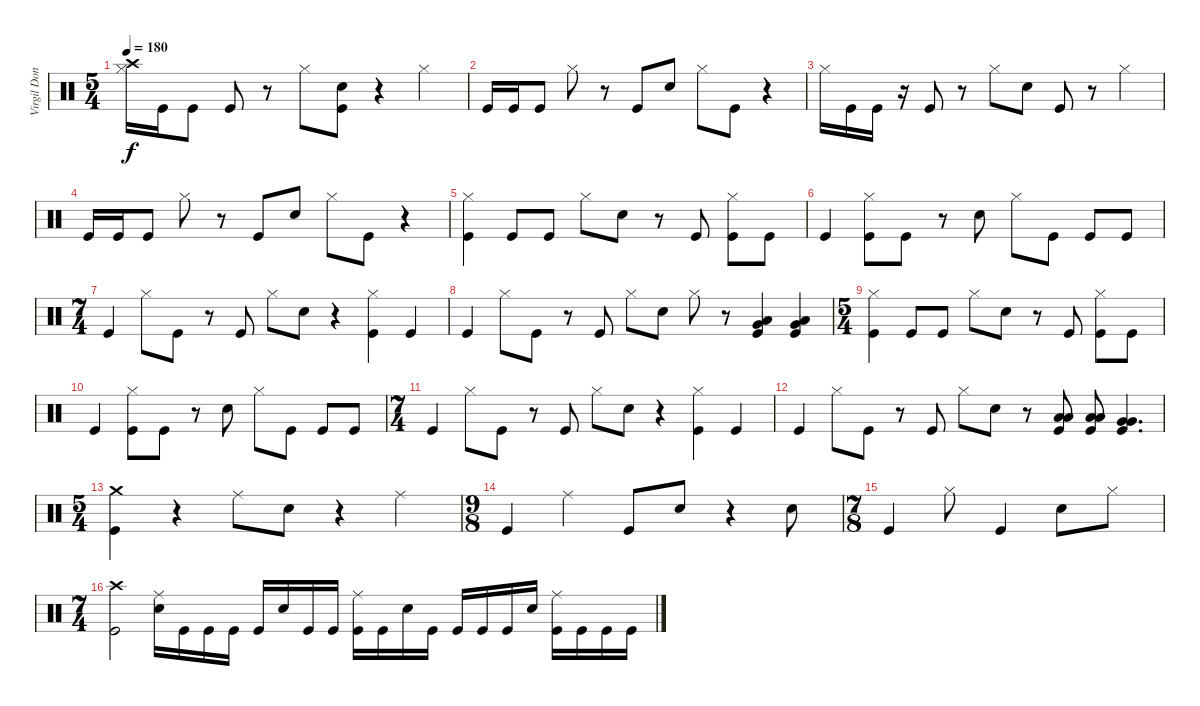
\track ("Virgil Donati" "Virgil Don") {instrument percussion}
\staff {score}
\articulation defaults
\ts (5 4)
\tempo 180
\clef neutral
\ks c
("Hi-Hat (closed)" "Crash high (hit)").16{dy f} "Kick (hit)".16 "Kick (hit)".8 "Kick (hit)".8 r.8 "Hi-Hat (closed)".8 ("Snare (hit) 2" "Kick (hit)").8 r.4 "Hi-Hat (closed)".4 |
"Kick (hit)".16 "Kick (hit)".16 "Kick (hit)".8 "Hi-Hat (closed)".8 r.8 "Kick (hit)".8 "Snare (hit) 2".8 "Hi-Hat (closed)".8 "Kick (hit)".8 r.4 |
"Hi-Hat (closed)".16 "Kick (hit)".16 "Kick (hit)".16 r.16 "Kick (hit)".8 r.8 "Hi-Hat (closed)".8 "Snare (hit) 2".8 "Kick (hit)".8 r.8 "Hi-Hat (closed)".4 |
"Kick (hit)".16 "Kick (hit)".16 "Kick (hit)".8 "Hi-Hat (closed)".8 r.8 "Kick (hit)".8 "Snare (hit) 2".8 "Hi-Hat (closed)".8 "Kick (hit)".8 r.4 |
("Hi-Hat (closed)" "Kick (hit)").4 "Kick (hit)".8 "Kick (hit)".8 "Hi-Hat (closed)".8 "Snare (hit) 2".8 r.8 "Kick (hit)".8 ("Hi-Hat (closed)" "Kick (hit)").8 "Kick (hit)".8 |
"Kick (hit)".4 ("Hi-Hat (closed)" "Kick (hit)").8 "Kick (hit)".8 r.8 "Snare (hit) 2".8 "Hi-Hat (closed)".8 "Kick (hit)".8 "Kick (hit)".8 "Kick (hit)".8 |
\ts (7 4)
"Kick (hit)".4 "Hi-Hat (closed)".8 "Kick (hit)".8 r.8 "Kick (hit)".8 "Hi-Hat (closed)".8 "Snare (hit) 2".8 r.4 ("Hi-Hat (closed)" "Kick (hit)").4 "Kick (hit)".4 |
"Kick (hit)".4 "Hi-Hat (closed)".8 "Kick (hit)".8 r.8 "Kick (hit)".8 "Hi-Hat (closed)".8 "Snare (hit) 2".8 "Hi-Hat (closed)".8 r.8 ("Very Low Tom (hit)" "Low Floor Tom (hit)" "Kick (hit)").4 ("Very Low Tom (hit)" "Low Floor Tom (hit)" "Kick (hit)").4 |
\ts (5 4)
("Hi-Hat (closed)" "Kick (hit)").4 "Kick (hit)".8 "Kick (hit)".8 "Hi-Hat (closed)".8 "Snare (hit) 2".8 r.8 "Kick (hit)".8 ("Hi-Hat (closed)" "Kick (hit)").8 "Kick (hit)".8 |
"Kick (hit)".4 ("Hi-Hat (closed)" "Kick (hit)").8 "Kick (hit)".8 r.8 "Snare (hit) 2".8 "Hi-Hat (closed)".8 "Kick (hit)".8 "Kick (hit)".8 "Kick (hit)".8 |
\ts (7 4)
"Kick (hit)".4 "Hi-Hat (closed)".8 "Kick (hit)".8 r.8 "Kick (hit)".8 "Hi-Hat (closed)".8 "Snare (hit) 2".8 r.4 ("Hi-Hat (closed)" "Kick (hit)").4 "Kick (hit)".4 |
"Kick (hit)".4 "Hi-Hat (closed)".8 "Kick (hit)".8 r.8 "Kick (hit)".8 "Hi-Hat (closed)".8 "Snare (hit) 2".8 r.8 ("Low Tom (hit)" "Low Tom (hit)" "Kick (hit)").8 ("Low Floor Tom (hit)" "Low Floor Tom (hit)" "Kick (hit)").8 ("Very Low Tom (hit)" "Very Low Tom (hit)" "Kick (hit)").4{d} |
\ts (5 4)
("Crash medium (hit)" "Kick (hit)").4 r.4 "Ride (middle)".8 "Snare (hit) 2".8 r.4 "Ride (middle)".4 |
\ts (9 8)
"Kick (hit)".4 "Ride (middle)".4 "Kick (hit)".8 "Snare (hit) 2".8 r.4 "Snare (hit) 2".8 |
\ts (7 8)
"Kick (hit)".4 "Hi-Hat (closed)".8 "Kick (hit)".4 "Snare (hit) 2".8 "Hi-Hat (closed)".8 |
\ts (7 4)
("Crash high (hit)" "Kick (hit)").2 ("Ride (middle)" "Snare (hit) 2").16 "Kick (hit)".16 "Kick (hit)".16 "Kick (hit)".16 "Kick (hit)".16 "Snare (hit) 2".16 "Kick (hit)".16 "Kick (hit)".16 ("Ride (middle)" "Kick (hit)").16 "Kick (hit)".16 "Snare (hit) 2".16 "Kick (hit)".16 "Kick (hit)".16 "Kick (hit)".16 "Kick (hit)".16 "Snare (hit) 2".16 ("Ride (middle)" "Kick (hit)").16 "Kick (hit)".16 "Kick (hit)".16 "Kick (hit)".16
